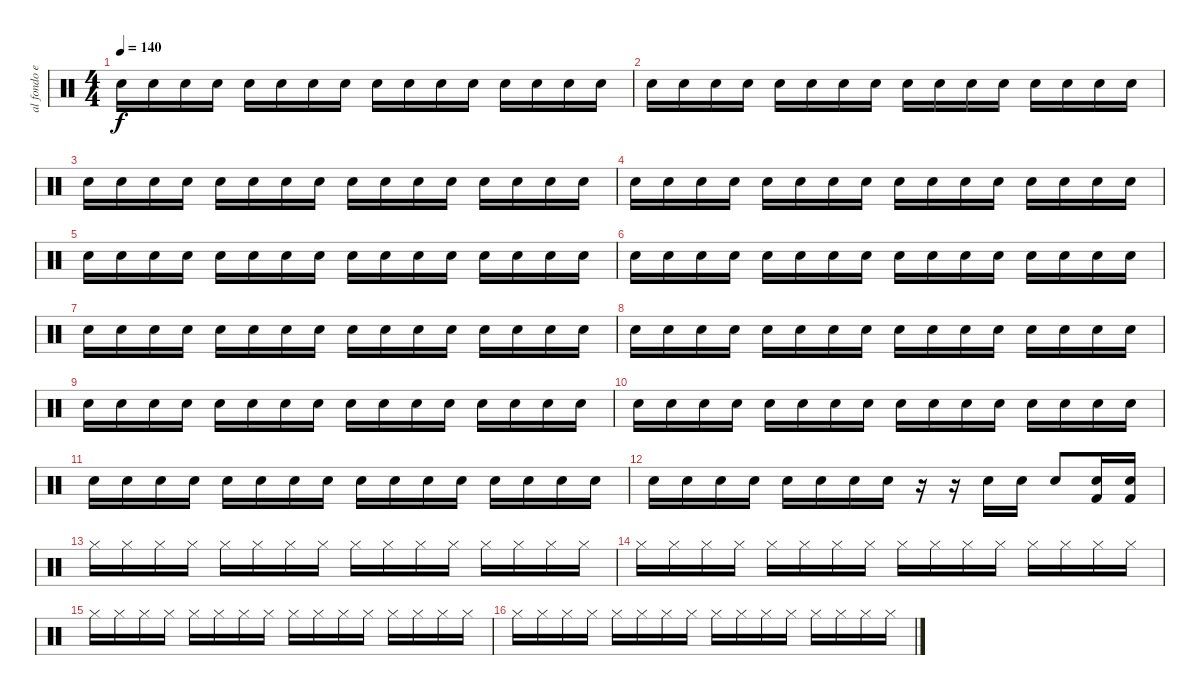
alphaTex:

\track ("al fondo en la bateria Mr Pedro Andreu" "al fondo e") {instrument percussion}
\staff {score}
\articulation defaults
\ts (4 4)
\tempo 140
\clef neutral
\ks c "Snare (hit) 2".16{dy f} "Snare (hit) 2".16 "Snare (hit) 2".16 "Snare (hit) 2".16 "Snare (hit) 2".16 "Snare (hit) 2".16 "Snare (hit) 2".16 "Snare (hit) 2".16 "Snare (hit) 2".16 "Snare (hit) 2".16 "Snare (hit) 2".16 "Snare (hit) 2".16 "Snare (hit) 2".16 "Snare (hit) 2".16 "Snare (hit) 2".16 "Snare (hit) 2".16
|
"Snare (hit) 2".16 "Snare (hit) 2".16 "Snare (hit) 2".16 "Snare (hit) 2".16 "Snare (hit) 2".16 "Snare (hit) 2".16 "Snare (hit) 2".16 "Snare (hit) 2".16 "Snare (hit) 2".16 "Snare (hit) 2".16 "Snare (hit) 2".16 "Snare (hit) 2".16 "Snare (hit) 2".16 "Snare (hit) 2".16 "Snare (hit) 2".16 "Snare (hit) 2".16 |
"Snare (hit) 2".16 "Snare (hit) 2".16 "Snare (hit) 2".16 "Snare (hit) 2".16 "Snare (hit) 2".16 "Snare (hit) 2".16 "Snare (hit) 2".16 "Snare (hit) 2".16 "Snare (hit) 2".16 "Snare (hit) 2".16 "Snare (hit) 2".16 "Snare (hit) 2".16 "Snare (hit) 2".16 "Snare (hit) 2".16 "Snare (hit) 2".16 "Snare (hit) 2".16 |
"Snare (hit) 2".16 "Snare (hit) 2".16 "Snare (hit) 2".16 "Snare (hit) 2".16 "Snare (hit) 2".16 "Snare (hit) 2".16 "Snare (hit) 2".16 "Snare (hit) 2".16 "Snare (hit) 2".16 "Snare (hit) 2".16 "Snare (hit) 2".16 "Snare (hit) 2".16 "Snare (hit) 2".16 "Snare (hit) 2".16 "Snare (hit) 2".16 "Snare (hit) 2".16 |
"Snare (hit) 2".16 "Snare (hit) 2".16 "Snare (hit) 2".16 "Snare (hit) 2".16 "Snare (hit) 2".16 "Snare (hit) 2".16 "Snare (hit) 2".16 "Snare (hit) 2".16 "Snare (hit) 2".16 "Snare (hit) 2".16 "Snare (hit) 2".16 "Snare (hit) 2".16 "Snare (hit) 2".16 "Snare (hit) 2".16 "Snare (hit) 2".16 "Snare (hit) 2".16 |
"Snare (hit) 2".16 "Snare (hit) 2".16 "Snare (hit) 2".16 "Snare (hit) 2".16 "Snare (hit) 2".16 "Snare (hit) 2".16 "Snare (hit) 2".16 "Snare (hit) 2".16 "Snare (hit) 2".16 "Snare (hit) 2".16 "Snare (hit) 2".16 "Snare (hit) 2".16 "Snare (hit) 2".16 "Snare (hit) 2".16 "Snare (hit) 2".16 "Snare (hit) 2".16 |
"Snare (hit) 2".16 "Snare (hit) 2".16 "Snare (hit) 2".16 "Snare (hit) 2".16 "Snare (hit) 2".16 "Snare (hit) 2".16 "Snare (hit) 2".16 "Snare (hit) 2".16 "Snare (hit) 2".16 "Snare (hit) 2".16 "Snare (hit) 2".16 "Snare (hit) 2".16 "Snare (hit) 2".16 "Snare (hit) 2".16 "Snare (hit) 2".16 "Snare (hit) 2".16 |
"Snare (hit) 2".16 "Snare (hit) 2".16 "Snare (hit) 2".16 "Snare (hit) 2".16 "Snare (hit) 2".16 "Snare (hit) 2".16 "Snare (hit) 2".16 "Snare (hit) 2".16 "Snare (hit) 2".16 "Snare (hit) 2".16 "Snare (hit) 2".16 "Snare (hit) 2".16 "Snare (hit) 2".16 "Snare (hit) 2".16 "Snare (hit) 2".16 "Snare (hit) 2".16 |
"Snare (hit) 2".16 "Snare (hit) 2".16 "Snare (hit) 2".16 "Snare (hit) 2".16 "Snare (hit) 2".16 "Snare (hit) 2".16 "Snare (hit) 2".16 "Snare (hit) 2".16 "Snare (hit) 2".16 "Snare (hit) 2".16 "Snare (hit) 2".16 "Snare (hit) 2".16 "Snare (hit) 2".16 "Snare (hit) 2".16 "Snare (hit) 2".16 "Snare (hit) 2".16 |
"Snare (hit) 2".16 "Snare (hit) 2".16 "Snare (hit) 2".16 "Snare (hit) 2".16 "Snare (hit) 2".16 "Snare (hit) 2".16 "Snare (hit) 2".16 "Snare (hit) 2".16 "Snare (hit) 2".16 "Snare (hit) 2".16 "Snare (hit) 2".16 "Snare (hit) 2".16 "Snare (hit) 2".16 "Snare (hit) 2".16 "Snare (hit) 2".16 "Snare (hit) 2".16 |
"Snare (hit) 2".16 "Snare (hit) 2".16 "Snare (hit) 2".16 "Snare (hit) 2".16 "Snare (hit) 2".16 "Snare (hit) 2".16 "Snare (hit) 2".16 "Snare (hit) 2".16 "Snare (hit) 2".16 "Snare (hit) 2".16 "Snare (hit) 2".16 "Snare (hit) 2".16 "Snare (hit) 2".16 "Snare (hit) 2".16 "Snare (hit) 2".16 "Snare (hit) 2".16 |
"Snare (hit) 2".16 "Snare (hit) 2".16 "Snare (hit) 2".16 "Snare (hit) 2".16 "Snare (hit) 2".16 "Snare (hit) 2".16 "Snare (hit) 2".16 "Snare (hit) 2".16 r.16 r.16 "Snare (hit) 2".16 "Snare (hit) 2".16 "Snare (hit) 2".8 ("Kick (hit) 2" "Snare (hit) 2").16 ("Kick (hit) 2" "Snare (hit) 2").16 |
"Hi-Hat (closed)".16 "Hi-Hat (closed)".16 "Hi-Hat (closed)".16 "Hi-Hat (closed)".16 "Hi-Hat (closed)".16 "Hi-Hat (closed)".16 "Hi-Hat (closed)".16 "Hi-Hat (closed)".16 "Hi-Hat (closed)".16 "Hi-Hat (closed)".16 "Hi-Hat (closed)".16 "Hi-Hat (closed)".16 "Hi-Hat (closed)".16 "Hi-Hat (closed)".16 "Hi-Hat (closed)".16 "Hi-Hat (closed)".16 |
"Hi-Hat (closed)".16 "Hi-Hat (closed)".16 "Hi-Hat (closed)".16 "Hi-Hat (closed)".16 "Hi-Hat (closed)".16 "Hi-Hat (closed)".16 "Hi-Hat (closed)".16 "Hi-Hat (closed)".16 "Hi-Hat (closed)".16 "Hi-Hat (closed)".16 "Hi-Hat (closed)".16 "Hi-Hat (closed)".16 "Hi-Hat (closed)".16 "Hi-Hat (closed)".16 "Hi-Hat (closed)".16 "Hi-Hat (closed)".16 |
"Hi-Hat (closed)".16 "Hi-Hat (closed)".16 "Hi-Hat (closed)".16 "Hi-Hat (closed)".16 "Hi-Hat (closed)".16 "Hi-Hat (closed)".16 "Hi-Hat (closed)".16 "Hi-Hat (closed)".16 "Hi-Hat (closed)".16 "Hi-Hat (closed)".16 "Hi-Hat (closed)".16 "Hi-Hat (closed)".16 "Hi-Hat (closed)".16 "Hi-Hat (closed)".16 "Hi-Hat (closed)".16 "Hi-Hat (closed)".16 |
"Hi-Hat (closed)".16 "Hi-Hat (closed)".16 "Hi-Hat (closed)".16 "Hi-Hat (closed)".16 "Hi-Hat (closed)".16 "Hi-Hat (closed)".16 "Hi-Hat (closed)".16 "Hi-Hat (closed)".16 "Hi-Hat (closed)".16 "Hi-Hat (closed)".16 "Hi-Hat (closed)".16 "Hi-Hat (closed)".16 "Hi-Hat (closed)".16 "Hi-Hat (closed)".16 "Hi-Hat (closed)".16 "Hi-Hat (closed)".16
